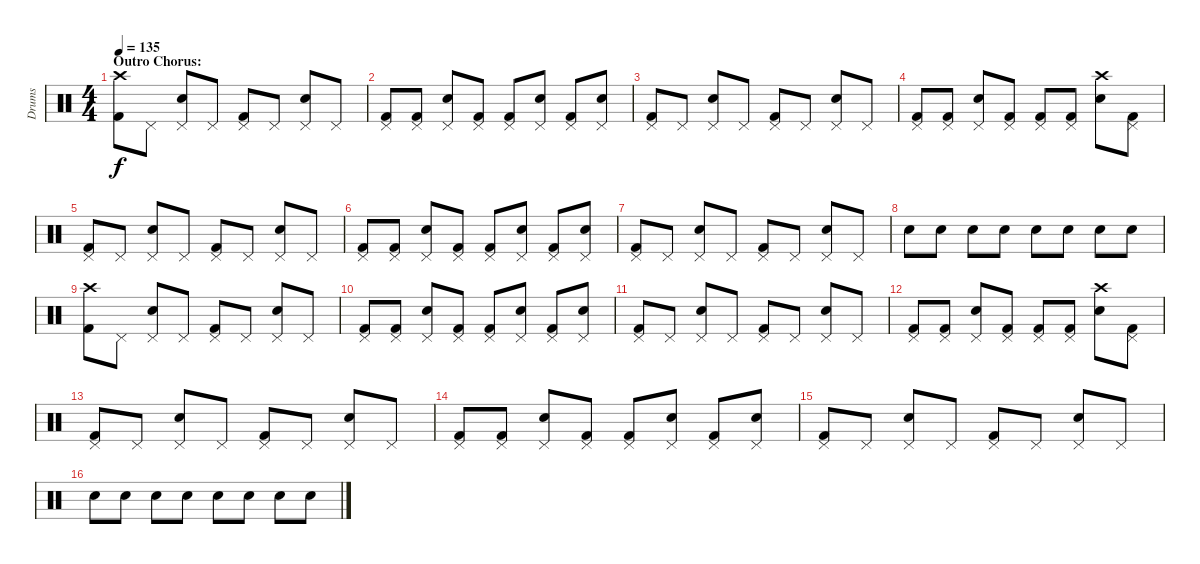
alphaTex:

\track ("Drums" "Drums") {instrument percussion}
\staff {score}
\articulation defaults
\ts (4 4)
\section ("" "Outro Chorus:")
\tempo 135
\clef neutral
\ks c
("Crash high (hit)" "Kick (hit) 2").8{dy f} "Pedal Hi-Hat (hit)".8 ("Pedal Hi-Hat (hit)" "Snare (hit) 2").8 "Pedal Hi-Hat (hit)".8 ("Pedal Hi-Hat (hit)" "Kick (hit) 2").8 "Pedal Hi-Hat (hit)".8 ("Pedal Hi-Hat (hit)" "Snare (hit) 2").8 "Pedal Hi-Hat (hit)".8 |
("Pedal Hi-Hat (hit)" "Kick (hit) 2").8 ("Pedal Hi-Hat (hit)" "Kick (hit) 2").8 ("Pedal Hi-Hat (hit)" "Snare (hit) 2").8 ("Pedal Hi-Hat (hit)" "Kick (hit) 2").8 ("Pedal Hi-Hat (hit)" "Kick (hit) 2").8 ("Pedal Hi-Hat (hit)" "Snare (hit) 2").8 ("Pedal Hi-Hat (hit)" "Kick (hit) 2").8 ("Pedal Hi-Hat (hit)" "Snare (hit) 2").8 |
("Pedal Hi-Hat (hit)" "Kick (hit) 2").8 "Pedal Hi-Hat (hit)".8 ("Pedal Hi-Hat (hit)" "Snare (hit) 2").8 "Pedal Hi-Hat (hit)".8 ("Pedal Hi-Hat (hit)" "Kick (hit) 2").8 "Pedal Hi-Hat (hit)".8 ("Pedal Hi-Hat (hit)" "Snare (hit) 2").8 "Pedal Hi-Hat (hit)".8 |
("Pedal Hi-Hat (hit)" "Kick (hit) 2").8 ("Pedal Hi-Hat (hit)" "Kick (hit) 2").8 ("Pedal Hi-Hat (hit)" "Snare (hit) 2").8 ("Pedal Hi-Hat (hit)" "Kick (hit) 2").8 ("Pedal Hi-Hat (hit)" "Kick (hit) 2").8 ("Pedal Hi-Hat (hit)" "Kick (hit) 2").8 ("Crash high (hit)" "Snare (hit) 2").8 ("Pedal Hi-Hat (hit)" "Kick (hit) 2").8 |
("Pedal Hi-Hat (hit)" "Kick (hit) 2").8 "Pedal Hi-Hat (hit)".8 ("Pedal Hi-Hat (hit)" "Snare (hit) 2").8 "Pedal Hi-Hat (hit)".8 ("Pedal Hi-Hat (hit)" "Kick (hit) 2").8 "Pedal Hi-Hat (hit)".8 ("Pedal Hi-Hat (hit)" "Snare (hit) 2").8 "Pedal Hi-Hat (hit)".8 |
("Pedal Hi-Hat (hit)" "Kick (hit) 2").8 ("Pedal Hi-Hat (hit)" "Kick (hit) 2").8 ("Pedal Hi-Hat (hit)" "Snare (hit) 2").8 ("Pedal Hi-Hat (hit)" "Kick (hit) 2").8 ("Pedal Hi-Hat (hit)" "Kick (hit) 2").8 ("Pedal Hi-Hat (hit)" "Snare (hit) 2").8 ("Pedal Hi-Hat (hit)" "Kick (hit) 2").8 ("Pedal Hi-Hat (hit)" "Snare (hit) 2").8 |
("Pedal Hi-Hat (hit)" "Kick (hit) 2").8 "Pedal Hi-Hat (hit)".8 ("Pedal Hi-Hat (hit)" "Snare (hit) 2").8 "Pedal Hi-Hat (hit)".8 ("Pedal Hi-Hat (hit)" "Kick (hit) 2").8 "Pedal Hi-Hat (hit)".8 ("Pedal Hi-Hat (hit)" "Snare (hit) 2").8 "Pedal Hi-Hat (hit)".8 |
"Snare (hit) 2".8 "Snare (hit) 2".8 "Snare (hit) 2".8 "Snare (hit) 2".8 "Snare (hit) 2".8 "Snare (hit) 2".8 "Snare (hit) 2".8 "Snare (hit) 2".8 |
("Crash high (hit)" "Kick (hit) 2").8 "Pedal Hi-Hat (hit)".8 ("Pedal Hi-Hat (hit)" "Snare (hit) 2").8 "Pedal Hi-Hat (hit)".8 ("Pedal Hi-Hat (hit)" "Kick (hit) 2").8 "Pedal Hi-Hat (hit)".8 ("Pedal Hi-Hat (hit)" "Snare (hit) 2").8 "Pedal Hi-Hat (hit)".8 |
("Pedal Hi-Hat (hit)" "Kick (hit) 2").8 ("Pedal Hi-Hat (hit)" "Kick (hit) 2").8 ("Pedal Hi-Hat (hit)" "Snare (hit) 2").8 ("Pedal Hi-Hat (hit)" "Kick (hit) 2").8 ("Pedal Hi-Hat (hit)" "Kick (hit) 2").8 ("Pedal Hi-Hat (hit)" "Snare (hit) 2").8 ("Pedal Hi-Hat (hit)" "Kick (hit) 2").8 ("Pedal Hi-Hat (hit)" "Snare (hit) 2").8 |
("Pedal Hi-Hat (hit)" "Kick (hit) 2").8 "Pedal Hi-Hat (hit)".8 ("Pedal Hi-Hat (hit)" "Snare (hit) 2").8 "Pedal Hi-Hat (hit)".8 ("Pedal Hi-Hat (hit)" "Kick (hit) 2").8 "Pedal Hi-Hat (hit)".8 ("Pedal Hi-Hat (hit)" "Snare (hit) 2").8 "Pedal Hi-Hat (hit)".8 |
("Pedal Hi-Hat (hit)" "Kick (hit) 2").8 ("Pedal Hi-Hat (hit)" "Kick (hit) 2").8 ("Pedal Hi-Hat (hit)" "Snare (hit) 2").8 ("Pedal Hi-Hat (hit)" "Kick (hit) 2").8 ("Pedal Hi-Hat (hit)" "Kick (hit) 2").8 ("Pedal Hi-Hat (hit)" "Kick (hit) 2").8 ("Crash high (hit)" "Snare (hit) 2").8 ("Pedal Hi-Hat (hit)" "Kick (hit) 2").8 |
("Pedal Hi-Hat (hit)" "Kick (hit) 2").8 "Pedal Hi-Hat (hit)".8 ("Pedal Hi-Hat (hit)" "Snare (hit) 2").8 "Pedal Hi-Hat (hit)".8 ("Pedal Hi-Hat (hit)" "Kick (hit) 2").8 "Pedal Hi-Hat (hit)".8 ("Pedal Hi-Hat (hit)" "Snare (hit) 2").8 "Pedal Hi-Hat (hit)".8 |
("Pedal Hi-Hat (hit)" "Kick (hit) 2").8 ("Pedal Hi-Hat (hit)" "Kick (hit) 2").8 ("Pedal Hi-Hat (hit)" "Snare (hit) 2").8 ("Pedal Hi-Hat (hit)" "Kick (hit) 2").8 ("Pedal Hi-Hat (hit)" "Kick (hit) 2").8 ("Pedal Hi-Hat (hit)" "Snare (hit) 2").8 ("Pedal Hi-Hat (hit)" "Kick (hit) 2").8 ("Pedal Hi-Hat (hit)" "Snare (hit) 2").8 |
("Pedal Hi-Hat (hit)" "Kick (hit) 2").8 "Pedal Hi-Hat (hit)".8 ("Pedal Hi-Hat (hit)" "Snare (hit) 2").8 "Pedal Hi-Hat (hit)".8 ("Pedal Hi-Hat (hit)" "Kick (hit) 2").8 "Pedal Hi-Hat (hit)".8 ("Pedal Hi-Hat (hit)" "Snare (hit) 2").8 "Pedal Hi-Hat (hit)".8 |
"Snare (hit) 2".8 "Snare (hit) 2".8 "Snare (hit) 2".8 "Snare (hit) 2".8 "Snare (hit) 2".8 "Snare (hit) 2".8 "Snare (hit) 2".8 "Snare (hit) 2".8
